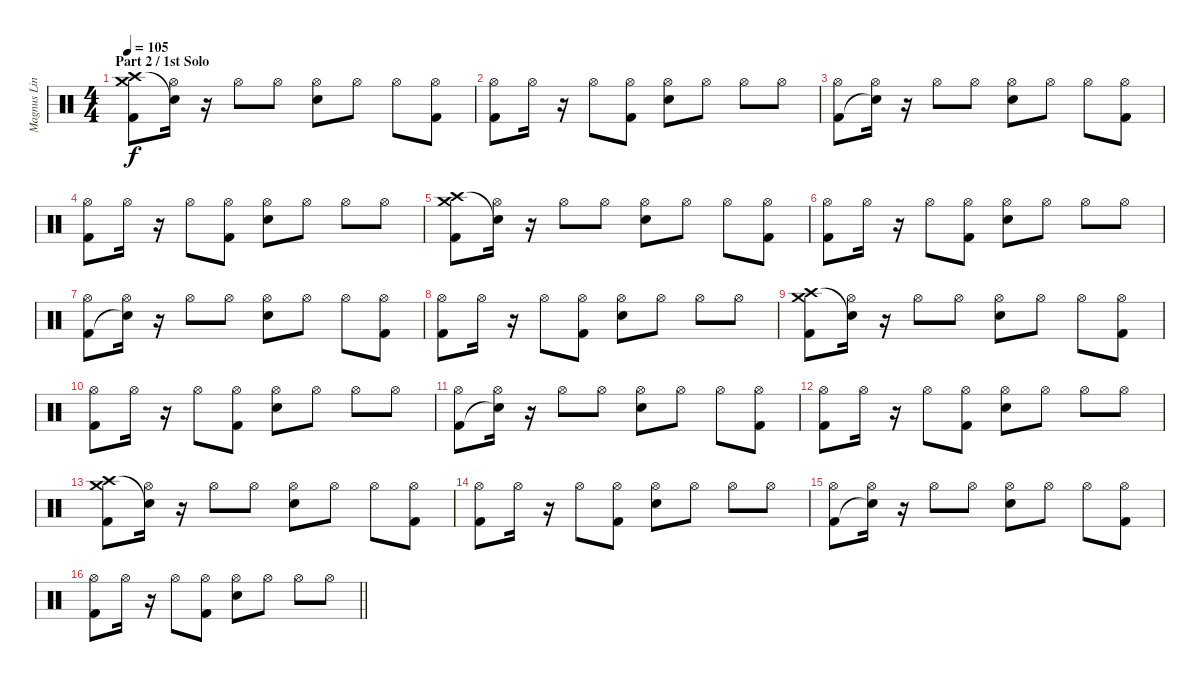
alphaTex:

\track ("Magnus Lindberg" "Magnus Lin") {instrument percussion}
\staff {score}
\articulation defaults
\ts (4 4)
\section ("" "Part 2 / 1st Solo")
\tempo 105
\clef neutral
\ks c
("Crash medium (hit)" "Crash high (hit)" "Kick (hit) 2").8{dy f} ("Hi-Hat (open)" "Snare (hit)"{t}).16 r.16 "Hi-Hat (open)".8 "Hi-Hat (open)".8 ("Hi-Hat (open)" "Snare (hit) 2").8 "Hi-Hat (open)".8 "Hi-Hat (open)".8 ("Hi-Hat (open)" "Kick (hit) 2").8 |
("Hi-Hat (open)" "Kick (hit) 2").8 "Hi-Hat (open)".16 r.16 "Hi-Hat (open)".8 ("Hi-Hat (open)" "Kick (hit) 2").8 ("Hi-Hat (open)" "Snare (hit) 2").8 "Hi-Hat (open)".8 "Hi-Hat (open)".8 "Hi-Hat (open)".8 |
("Hi-Hat (open)" "Kick (hit) 2").8 ("Hi-Hat (open)" "Snare (hit)"{t}).16 r.16 "Hi-Hat (open)".8 "Hi-Hat (open)".8 ("Hi-Hat (open)" "Snare (hit) 2").8 "Hi-Hat (open)".8 "Hi-Hat (open)".8 ("Hi-Hat (open)" "Kick (hit) 2").8 |
("Hi-Hat (open)" "Kick (hit) 2").8 "Hi-Hat (open)".16 r.16 "Hi-Hat (open)".8 ("Hi-Hat (open)" "Kick (hit) 2").8 ("Hi-Hat (open)" "Snare (hit) 2").8 "Hi-Hat (open)".8 "Hi-Hat (open)".8 "Hi-Hat (open)".8 |
("Crash medium (hit)" "Crash high (hit)" "Kick (hit) 2").8 ("Hi-Hat (open)" "Snare (hit)"{t}).16 r.16 "Hi-Hat (open)".8 "Hi-Hat (open)".8 ("Hi-Hat (open)" "Snare (hit) 2").8 "Hi-Hat (open)".8 "Hi-Hat (open)".8 ("Hi-Hat (open)" "Kick (hit) 2").8 |
("Hi-Hat (open)" "Kick (hit) 2").8 "Hi-Hat (open)".16 r.16 "Hi-Hat (open)".8 ("Hi-Hat (open)" "Kick (hit) 2").8 ("Hi-Hat (open)" "Snare (hit) 2").8 "Hi-Hat (open)".8 "Hi-Hat (open)".8 "Hi-Hat (open)".8 |
("Hi-Hat (open)" "Kick (hit) 2").8 ("Hi-Hat (open)" "Snare (hit)"{t}).16 r.16 "Hi-Hat (open)".8 "Hi-Hat (open)".8 ("Hi-Hat (open)" "Snare (hit) 2").8 "Hi-Hat (open)".8 "Hi-Hat (open)".8 ("Hi-Hat (open)" "Kick (hit) 2").8 |
("Hi-Hat (open)" "Kick (hit) 2").8 "Hi-Hat (open)".16 r.16 "Hi-Hat (open)".8 ("Hi-Hat (open)" "Kick (hit) 2").8 ("Hi-Hat (open)" "Snare (hit) 2").8 "Hi-Hat (open)".8 "Hi-Hat (open)".8 "Hi-Hat (open)".8 |
("Crash medium (hit)" "Crash high (hit)" "Kick (hit) 2").8 ("Hi-Hat (open)" "Snare (hit)"{t}).16 r.16 "Hi-Hat (open)".8 "Hi-Hat (open)".8 ("Hi-Hat (open)" "Snare (hit) 2").8 "Hi-Hat (open)".8 "Hi-Hat (open)".8 ("Hi-Hat (open)" "Kick (hit) 2").8 |
("Hi-Hat (open)" "Kick (hit) 2").8 "Hi-Hat (open)".16 r.16 "Hi-Hat (open)".8 ("Hi-Hat (open)" "Kick (hit) 2").8 ("Hi-Hat (open)" "Snare (hit) 2").8 "Hi-Hat (open)".8 "Hi-Hat (open)".8 "Hi-Hat (open)".8 |
("Hi-Hat (open)" "Kick (hit) 2").8 ("Hi-Hat (open)" "Snare (hit)"{t}).16 r.16 "Hi-Hat (open)".8 "Hi-Hat (open)".8 ("Hi-Hat (open)" "Snare (hit) 2").8 "Hi-Hat (open)".8 "Hi-Hat (open)".8 ("Hi-Hat (open)" "Kick (hit) 2").8 |
("Hi-Hat (open)" "Kick (hit) 2").8 "Hi-Hat (open)".16 r.16 "Hi-Hat (open)".8 ("Hi-Hat (open)" "Kick (hit) 2").8 ("Hi-Hat (open)" "Snare (hit) 2").8 "Hi-Hat (open)".8 "Hi-Hat (open)".8 "Hi-Hat (open)".8 |
("Crash medium (hit)" "Crash high (hit)" "Kick (hit) 2").8 ("Hi-Hat (open)" "Snare (hit)"{t}).16 r.16 "Hi-Hat (open)".8 "Hi-Hat (open)".8 ("Hi-Hat (open)" "Snare (hit) 2").8 "Hi-Hat (open)".8 "Hi-Hat (open)".8 ("Hi-Hat (open)" "Kick (hit) 2").8 |
("Hi-Hat (open)" "Kick (hit) 2").8 "Hi-Hat (open)".16 r.16 "Hi-Hat (open)".8 ("Hi-Hat (open)" "Kick (hit) 2").8 ("Hi-Hat (open)" "Snare (hit) 2").8 "Hi-Hat (open)".8 "Hi-Hat (open)".8 "Hi-Hat (open)".8 |
("Hi-Hat (open)" "Kick (hit) 2").8 ("Hi-Hat (open)" "Snare (hit)"{t}).16 r.16 "Hi-Hat (open)".8 "Hi-Hat (open)".8 ("Hi-Hat (open)" "Snare (hit) 2").8 "Hi-Hat (open)".8 "Hi-Hat (open)".8 ("Hi-Hat (open)" "Kick (hit) 2").8 |
\barLineRight lightlight
("Hi-Hat (open)" "Kick (hit) 2").8 "Hi-Hat (open)".16 r.16 "Hi-Hat (open)".8 ("Hi-Hat (open)" "Kick (hit) 2").8 ("Hi-Hat (open)" "Snare (hit) 2").8 "Hi-Hat (open)".8 "Hi-Hat (open)".8 "Hi-Hat (open)".8
